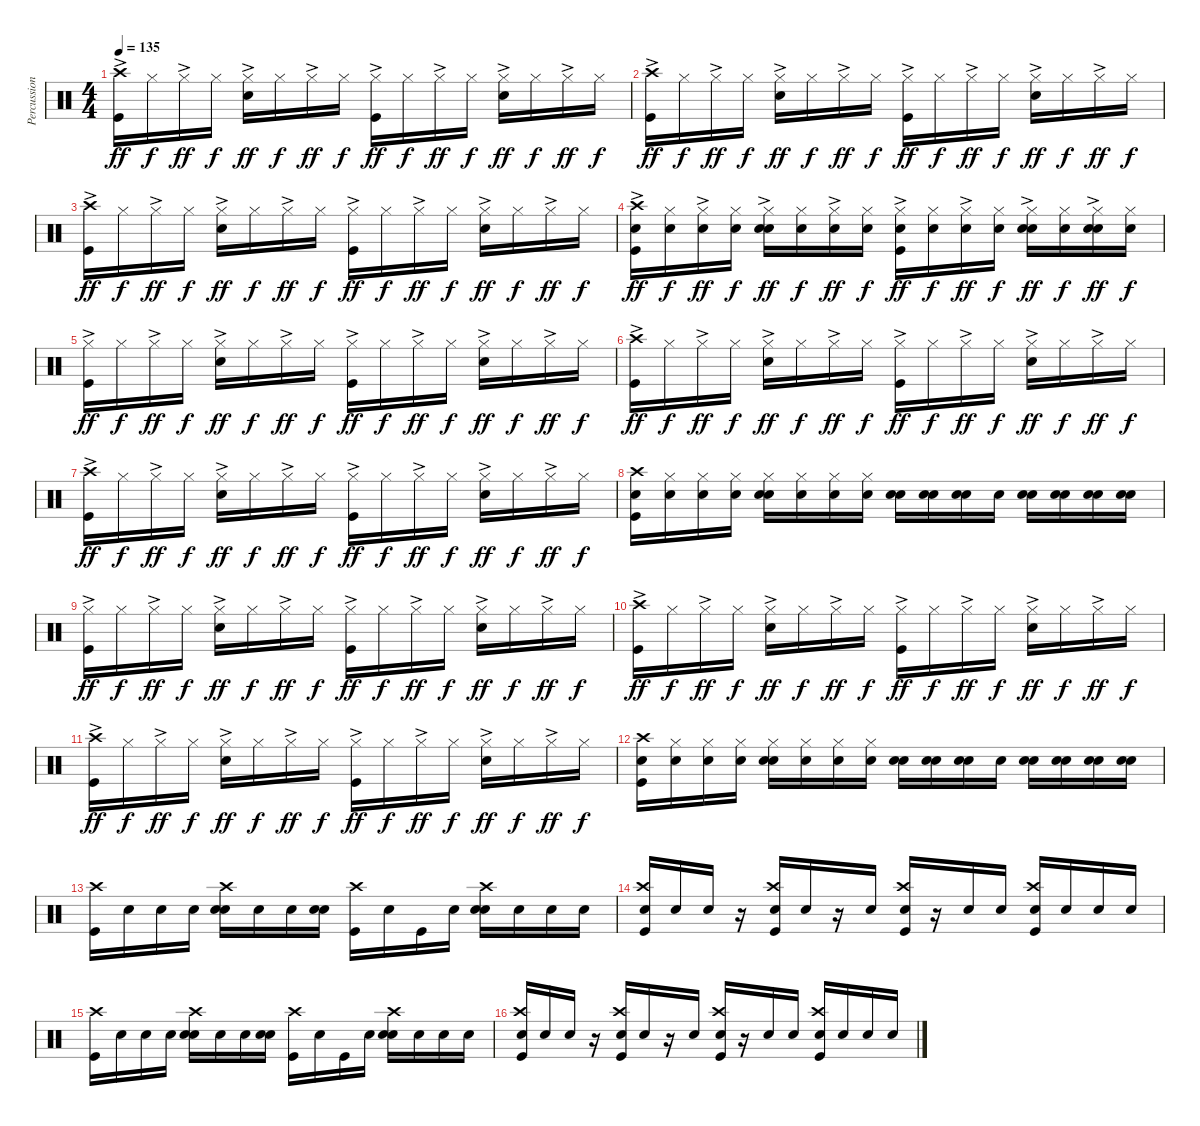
\track ("Percussion" "Percussion") {instrument percussion}
\staff {score}
\articulation defaults
\ts (4 4)
\tempo 135
\clef neutral
\ks c
("Kick (hit)" "Crash high (hit)"{ac}).16{dy ff} "Hi-Hat (closed)".16{dy f} "Hi-Hat (closed)"{ac}.16{dy ff} "Hi-Hat (closed)".16{dy f} ("Electric Snare (hit)" "Hi-Hat (closed)"{ac}).16{dy ff} "Hi-Hat (closed)".16{dy f} "Hi-Hat (closed)"{ac}.16{dy ff} "Hi-Hat (closed)".16{dy f} ("Kick (hit)" "Hi-Hat (closed)"{ac}).16{dy ff} "Hi-Hat (closed)".16{dy f} "Hi-Hat (closed)"{ac}.16{dy ff} "Hi-Hat (closed)".16{dy f} ("Electric Snare (hit)" "Hi-Hat (closed)"{ac}).16{dy ff} "Hi-Hat (closed)".16{dy f} "Hi-Hat (closed)"{ac}.16{dy ff} "Hi-Hat (closed)".16{dy f} |
("Kick (hit)" "Crash high (hit)"{ac}).16{dy ff} "Hi-Hat (closed)".16{dy f} "Hi-Hat (closed)"{ac}.16{dy ff} "Hi-Hat (closed)".16{dy f} ("Electric Snare (hit)" "Hi-Hat (closed)"{ac}).16{dy ff} "Hi-Hat (closed)".16{dy f} "Hi-Hat (closed)"{ac}.16{dy ff} "Hi-Hat (closed)".16{dy f} ("Kick (hit)" "Hi-Hat (closed)"{ac}).16{dy ff} "Hi-Hat (closed)".16{dy f} "Hi-Hat (closed)"{ac}.16{dy ff} "Hi-Hat (closed)".16{dy f} ("Electric Snare (hit)" "Hi-Hat (closed)"{ac}).16{dy ff} "Hi-Hat (closed)".16{dy f} "Hi-Hat (closed)"{ac}.16{dy ff} "Hi-Hat (closed)".16{dy f} |
("Kick (hit)" "Crash high (hit)"{ac}).16{dy ff} "Hi-Hat (closed)".16{dy f} "Hi-Hat (closed)"{ac}.16{dy ff} "Hi-Hat (closed)".16{dy f} ("Electric Snare (hit)" "Hi-Hat (closed)"{ac}).16{dy ff} "Hi-Hat (closed)".16{dy f} "Hi-Hat (closed)"{ac}.16{dy ff} "Hi-Hat (closed)".16{dy f} ("Kick (hit)" "Hi-Hat (closed)"{ac}).16{dy ff} "Hi-Hat (closed)".16{dy f} "Hi-Hat (closed)"{ac}.16{dy ff} "Hi-Hat (closed)".16{dy f} ("Electric Snare (hit)" "Hi-Hat (closed)"{ac}).16{dy ff} "Hi-Hat (closed)".16{dy f} "Hi-Hat (closed)"{ac}.16{dy ff} "Hi-Hat (closed)".16{dy f} |
("Snare (hit)" "Kick (hit)" "Crash high (hit)"{ac}).16{dy ff} ("Snare (hit)" "Hi-Hat (closed)").16{dy f} ("Snare (hit)" "Hi-Hat (closed)"{ac}).16{dy ff} ("Snare (hit)" "Hi-Hat (closed)").16{dy f} ("Snare (hit)" "Electric Snare (hit)" "Hi-Hat (closed)"{ac}).16{dy ff} ("Snare (hit)" "Hi-Hat (closed)").16{dy f} ("Snare (hit)" "Hi-Hat (closed)"{ac}).16{dy ff} ("Snare (hit)" "Hi-Hat (closed)").16{dy f} ("Snare (hit)" "Kick (hit)" "Hi-Hat (closed)"{ac}).16{dy ff} ("Snare (hit)" "Hi-Hat (closed)").16{dy f} ("Snare (hit)" "Hi-Hat (closed)"{ac}).16{dy ff} ("Snare (hit)" "Hi-Hat (closed)").16{dy f} ("Snare (hit)" "Electric Snare (hit)" "Hi-Hat (closed)"{ac}).16{dy ff} ("Snare (hit)" "Hi-Hat (closed)").16{dy f} ("Snare (hit)" "Electric Snare (hit)" "Hi-Hat (closed)"{ac}).16{dy ff} ("Snare (hit)" "Hi-Hat (closed)").16{dy f} |
("Kick (hit)" "Hi-Hat (closed)"{ac}).16{dy ff} "Hi-Hat (closed)".16{dy f} "Hi-Hat (closed)"{ac}.16{dy ff} "Hi-Hat (closed)".16{dy f} ("Electric Snare (hit)" "Hi-Hat (closed)"{ac}).16{dy ff} "Hi-Hat (closed)".16{dy f} "Hi-Hat (closed)"{ac}.16{dy ff} "Hi-Hat (closed)".16{dy f} ("Kick (hit)" "Hi-Hat (closed)"{ac}).16{dy ff} "Hi-Hat (closed)".16{dy f} "Hi-Hat (closed)"{ac}.16{dy ff} "Hi-Hat (closed)".16{dy f} ("Electric Snare (hit)" "Hi-Hat (closed)"{ac}).16{dy ff} "Hi-Hat (closed)".16{dy f} "Hi-Hat (closed)"{ac}.16{dy ff} "Hi-Hat (closed)".16{dy f} |
("Kick (hit)" "Crash high (hit)"{ac}).16{dy ff} "Hi-Hat (closed)".16{dy f} "Hi-Hat (closed)"{ac}.16{dy ff} "Hi-Hat (closed)".16{dy f} ("Electric Snare (hit)" "Hi-Hat (closed)"{ac}).16{dy ff} "Hi-Hat (closed)".16{dy f} "Hi-Hat (closed)"{ac}.16{dy ff} "Hi-Hat (closed)".16{dy f} ("Kick (hit)" "Hi-Hat (closed)"{ac}).16{dy ff} "Hi-Hat (closed)".16{dy f} "Hi-Hat (closed)"{ac}.16{dy ff} "Hi-Hat (closed)".16{dy f} ("Electric Snare (hit)" "Hi-Hat (closed)"{ac}).16{dy ff} "Hi-Hat (closed)".16{dy f} "Hi-Hat (closed)"{ac}.16{dy ff} "Hi-Hat (closed)".16{dy f} |
("Kick (hit)" "Crash high (hit)"{ac}).16{dy ff} "Hi-Hat (closed)".16{dy f} "Hi-Hat (closed)"{ac}.16{dy ff} "Hi-Hat (closed)".16{dy f} ("Electric Snare (hit)" "Hi-Hat (closed)"{ac}).16{dy ff} "Hi-Hat (closed)".16{dy f} "Hi-Hat (closed)"{ac}.16{dy ff} "Hi-Hat (closed)".16{dy f} ("Kick (hit)" "Hi-Hat (closed)"{ac}).16{dy ff} "Hi-Hat (closed)".16{dy f} "Hi-Hat (closed)"{ac}.16{dy ff} "Hi-Hat (closed)".16{dy f} ("Electric Snare (hit)" "Hi-Hat (closed)"{ac}).16{dy ff} "Hi-Hat (closed)".16{dy f} "Hi-Hat (closed)"{ac}.16{dy ff} "Hi-Hat (closed)".16{dy f} |
("Snare (hit)" "Kick (hit)" "Crash high (hit)").16 ("Snare (hit)" "Hi-Hat (closed)").16 ("Snare (hit)" "Hi-Hat (closed)").16 ("Snare (hit)" "Hi-Hat (closed)").16 ("Snare (hit)" "Electric Snare (hit)" "Hi-Hat (closed)").16 ("Snare (hit)" "Hi-Hat (closed)").16 ("Snare (hit)" "Hi-Hat (closed)").16 ("Snare (hit)" "Hi-Hat (closed)").16 ("Snare (hit)" "Electric Snare (hit)").16 ("Snare (hit)" "Electric Snare (hit)").16 ("Snare (hit)" "Electric Snare (hit)").16 "Snare (hit)".16 ("Snare (hit)" "Electric Snare (hit)").16 ("Snare (hit)" "Electric Snare (hit)").16 ("Snare (hit)" "Electric Snare (hit)").16 ("Snare (hit)" "Electric Snare (hit)").16 |
("Kick (hit)" "Hi-Hat (closed)"{ac}).16{dy ff} "Hi-Hat (closed)".16{dy f} "Hi-Hat (closed)"{ac}.16{dy ff} "Hi-Hat (closed)".16{dy f} ("Electric Snare (hit)" "Hi-Hat (closed)"{ac}).16{dy ff} "Hi-Hat (closed)".16{dy f} "Hi-Hat (closed)"{ac}.16{dy ff} "Hi-Hat (closed)".16{dy f} ("Kick (hit)" "Hi-Hat (closed)"{ac}).16{dy ff} "Hi-Hat (closed)".16{dy f} "Hi-Hat (closed)"{ac}.16{dy ff} "Hi-Hat (closed)".16{dy f} ("Electric Snare (hit)" "Hi-Hat (closed)"{ac}).16{dy ff} "Hi-Hat (closed)".16{dy f} "Hi-Hat (closed)"{ac}.16{dy ff} "Hi-Hat (closed)".16{dy f} |
("Kick (hit)" "Crash high (hit)"{ac}).16{dy ff} "Hi-Hat (closed)".16{dy f} "Hi-Hat (closed)"{ac}.16{dy ff} "Hi-Hat (closed)".16{dy f} ("Electric Snare (hit)" "Hi-Hat (closed)"{ac}).16{dy ff} "Hi-Hat (closed)".16{dy f} "Hi-Hat (closed)"{ac}.16{dy ff} "Hi-Hat (closed)".16{dy f} ("Kick (hit)" "Hi-Hat (closed)"{ac}).16{dy ff} "Hi-Hat (closed)".16{dy f} "Hi-Hat (closed)"{ac}.16{dy ff} "Hi-Hat (closed)".16{dy f} ("Electric Snare (hit)" "Hi-Hat (closed)"{ac}).16{dy ff} "Hi-Hat (closed)".16{dy f} "Hi-Hat (closed)"{ac}.16{dy ff} "Hi-Hat (closed)".16{dy f} |
("Kick (hit)" "Crash high (hit)"{ac}).16{dy ff} "Hi-Hat (closed)".16{dy f} "Hi-Hat (closed)"{ac}.16{dy ff} "Hi-Hat (closed)".16{dy f} ("Electric Snare (hit)" "Hi-Hat (closed)"{ac}).16{dy ff} "Hi-Hat (closed)".16{dy f} "Hi-Hat (closed)"{ac}.16{dy ff} "Hi-Hat (closed)".16{dy f} ("Kick (hit)" "Hi-Hat (closed)"{ac}).16{dy ff} "Hi-Hat (closed)".16{dy f} "Hi-Hat (closed)"{ac}.16{dy ff} "Hi-Hat (closed)".16{dy f} ("Electric Snare (hit)" "Hi-Hat (closed)"{ac}).16{dy ff} "Hi-Hat (closed)".16{dy f} "Hi-Hat (closed)"{ac}.16{dy ff} "Hi-Hat (closed)".16{dy f} |
("Snare (hit)" "Kick (hit)" "Crash high (hit)").16 ("Snare (hit)" "Hi-Hat (closed)").16 ("Snare (hit)" "Hi-Hat (closed)").16 ("Snare (hit)" "Hi-Hat (closed)").16 ("Snare (hit)" "Electric Snare (hit)" "Hi-Hat (closed)").16 ("Snare (hit)" "Hi-Hat (closed)").16 ("Snare (hit)" "Hi-Hat (closed)").16 ("Snare (hit)" "Hi-Hat (closed)").16 ("Snare (hit)" "Electric Snare (hit)").16 ("Snare (hit)" "Electric Snare (hit)").16 ("Snare (hit)" "Electric Snare (hit)").16 "Snare (hit)".16 ("Snare (hit)" "Electric Snare (hit)").16 ("Snare (hit)" "Electric Snare (hit)").16 ("Snare (hit)" "Electric Snare (hit)").16 ("Snare (hit)" "Electric Snare (hit)").16 |
("Kick (hit)" "Crash high (hit)").16 "Snare (hit)".16 "Snare (hit)".16 "Snare (hit)".16 ("Snare (hit)" "Electric Snare (hit)" "Crash high (hit)").16 "Snare (hit)".16 "Snare (hit)".16 ("Snare (hit)" "Electric Snare (hit)").16 ("Kick (hit)" "Crash high (hit)").16 "Snare (hit)".16 "Kick (hit)".16 "Snare (hit)".16 ("Snare (hit)" "Electric Snare (hit)" "Crash high (hit)").16 "Snare (hit)".16 "Snare (hit)".16 "Snare (hit)".16 |
("Kick (hit)" "Electric Snare (hit)" "Crash high (hit)").16 "Snare (hit)".16 "Snare (hit)".16 r.16 ("Kick (hit)" "Electric Snare (hit)" "Crash high (hit)").16 "Snare (hit)".16 r.16 "Snare (hit)".16 ("Kick (hit)" "Electric Snare (hit)" "Crash high (hit)").16 r.16 "Snare (hit)".16 "Snare (hit)".16 ("Kick (hit)" "Electric Snare (hit)" "Crash high (hit)").16 "Snare (hit)".16 "Snare (hit)".16 "Snare (hit)".16 |
("Kick (hit)" "Crash high (hit)").16 "Snare (hit)".16 "Snare (hit)".16 "Snare (hit)".16 ("Snare (hit)" "Electric Snare (hit)" "Crash high (hit)").16 "Snare (hit)".16 "Snare (hit)".16 ("Snare (hit)" "Electric Snare (hit)").16 ("Kick (hit)" "Crash high (hit)").16 "Snare (hit)".16 "Kick (hit)".16 "Snare (hit)".16 ("Snare (hit)" "Electric Snare (hit)" "Crash high (hit)").16 "Snare (hit)".16 "Snare (hit)".16 "Snare (hit)".16 |
("Kick (hit)" "Electric Snare (hit)" "Crash high (hit)").16 "Snare (hit)".16 "Snare (hit)".16 r.16 ("Kick (hit)" "Electric Snare (hit)" "Crash high (hit)").16 "Snare (hit)".16 r.16 "Snare (hit)".16 ("Kick (hit)" "Electric Snare (hit)" "Crash high (hit)").16 r.16 "Snare (hit)".16 "Snare (hit)".16 ("Kick (hit)" "Electric Snare (hit)" "Crash high (hit)").16 "Snare (hit)".16 "Snare (hit)".16 "Snare (hit)".16
